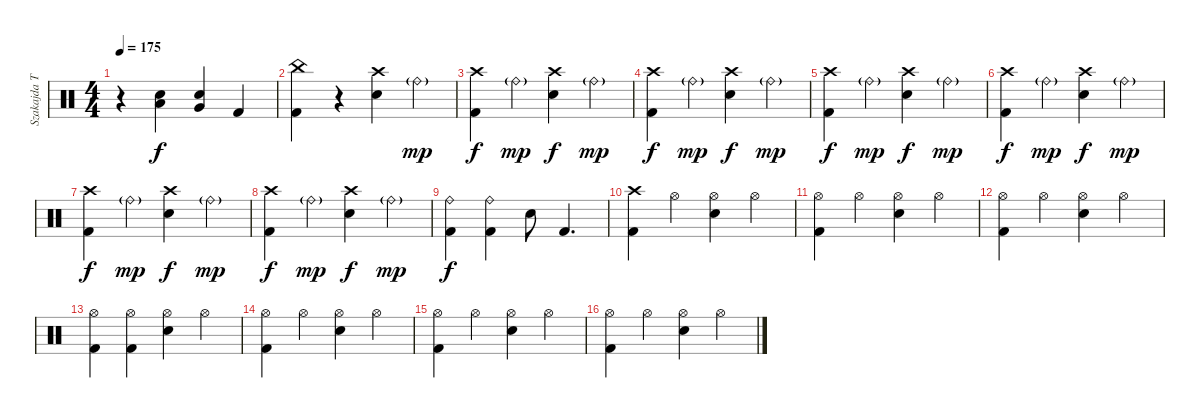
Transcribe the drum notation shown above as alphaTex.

\track ("Szakajda Tibi" "Szakajda T") {instrument percussion}
\staff {score}
\articulation defaults
\ts (4 4)
\tempo 175
\clef neutral
\ks c
r.4{dy f} ("Low Tom (hit)" "Snare (hit) 2").4 ("Very Low Tom (hit)" "Snare (hit) 2").4 "Kick (hit) 2".4 |
("China (hit)" "Kick (hit) 2").4 r.4 ("Crash high (hit)" "Snare (hit) 2").4 "Ride (bell)"{g}.4{dy mp} |
("Crash high (hit)" "Kick (hit) 2").4{dy f} "Ride (bell)"{g}.4{dy mp} ("Crash high (hit)" "Snare (hit) 2").4{dy f} "Ride (bell)"{g}.4{dy mp} |
("Crash high (hit)" "Kick (hit) 2").4{dy f} "Ride (bell)"{g}.4{dy mp} ("Crash high (hit)" "Snare (hit) 2").4{dy f} "Ride (bell)"{g}.4{dy mp} |
("Crash high (hit)" "Kick (hit) 2").4{dy f} "Ride (bell)"{g}.4{dy mp} ("Crash high (hit)" "Snare (hit) 2").4{dy f} "Ride (bell)"{g}.4{dy mp} |
("Crash high (hit)" "Kick (hit) 2").4{dy f} "Ride (bell)"{g}.4{dy mp} ("Crash high (hit)" "Snare (hit) 2").4{dy f} "Ride (bell)"{g}.4{dy mp} |
("Crash high (hit)" "Kick (hit) 2").4{dy f} "Ride (bell)"{g}.4{dy mp} ("Crash high (hit)" "Snare (hit) 2").4{dy f} "Ride (bell)"{g}.4{dy mp} |
("Crash high (hit)" "Kick (hit) 2").4{dy f} "Ride (bell)"{g}.4{dy mp} ("Crash high (hit)" "Snare (hit) 2").4{dy f} "Ride (bell)"{g}.4{dy mp} |
("Ride (bell)" "Kick (hit) 2").4{dy f} ("Ride (bell)" "Kick (hit) 2").4 "Snare (hit) 2".8 "Kick (hit) 2".4{d} |
("Crash high (hit)" "Kick (hit) 2").4 "Hi-Hat (open)".4 ("Hi-Hat (open)" "Snare (hit) 2").4 "Hi-Hat (open)".4 |
("Hi-Hat (open)" "Kick (hit) 2").4 "Hi-Hat (open)".4 ("Hi-Hat (open)" "Snare (hit) 2").4 "Hi-Hat (open)".4 |
("Hi-Hat (open)" "Kick (hit) 2").4 "Hi-Hat (open)".4 ("Hi-Hat (open)" "Snare (hit) 2").4 "Hi-Hat (open)".4 |
("Hi-Hat (open)" "Kick (hit) 2").4 ("Hi-Hat (open)" "Kick (hit) 2").4 ("Hi-Hat (open)" "Snare (hit) 2").4 "Hi-Hat (open)".4 |
("Hi-Hat (open)" "Kick (hit) 2").4 "Hi-Hat (open)".4 ("Hi-Hat (open)" "Snare (hit) 2").4 "Hi-Hat (open)".4 |
("Hi-Hat (open)" "Kick (hit) 2").4 "Hi-Hat (open)".4 ("Hi-Hat (open)" "Snare (hit) 2").4 "Hi-Hat (open)".4 |
("Hi-Hat (open)" "Kick (hit) 2").4 "Hi-Hat (open)".4 ("Hi-Hat (open)" "Snare (hit) 2").4 "Hi-Hat (open)".4
